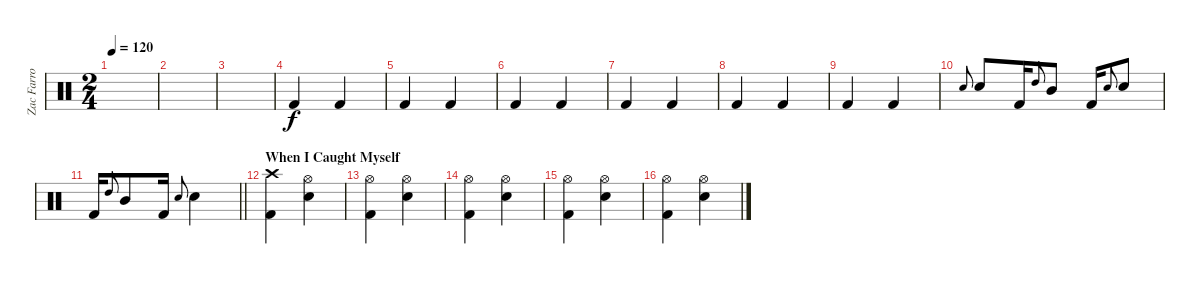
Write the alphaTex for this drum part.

\track ("Zac Farro" "Zac Farro") {instrument percussion}
\staff {score}
\articulation defaults
\ts (2 4)
\tempo 120
\clef neutral
\ks c
|
|
|
"Kick (hit) 2".4 "Kick (hit) 2".4 |
"Kick (hit) 2".4 "Kick (hit) 2".4 |
"Kick (hit) 2".4 "Kick (hit) 2".4 |
"Kick (hit) 2".4 "Kick (hit) 2".4 |
"Kick (hit) 2".4 "Kick (hit) 2".4 |
"Kick (hit) 2".4 "Kick (hit) 2".4 |
"Electric Snare (hit)".8{gr onbeat} "Electric Snare (hit)".8 "Kick (hit) 2".16 "High Tom (hit)".8{gr onbeat} "Mid Tom (hit)".8 "Kick (hit) 2".16 "Electric Snare (hit)".8{gr onbeat} "Electric Snare (hit)".8 |
\barLineRight lightlight "Kick (hit) 2".16 "High Tom (hit)".8{gr onbeat} "Mid Tom (hit)".8 "Kick (hit) 2".16 "Electric Snare (hit)".8{gr onbeat} "Electric Snare (hit)".4
|
\section ("" "When I Caught Myself")
("Crash high (hit)" "Kick (hit) 2").4 ("Hi-Hat (open)" "Electric Snare (hit)").4 |
("Kick (hit) 2" "Hi-Hat (open)").4 ("Electric Snare (hit)" "Hi-Hat (open)").4 |
("Kick (hit) 2" "Hi-Hat (open)").4 ("Electric Snare (hit)" "Hi-Hat (open)").4 |
("Kick (hit) 2" "Hi-Hat (open)").4 ("Electric Snare (hit)" "Hi-Hat (open)").4 |
("Kick (hit) 2" "Hi-Hat (open)").4 ("Electric Snare (hit)" "Hi-Hat (open)").4
